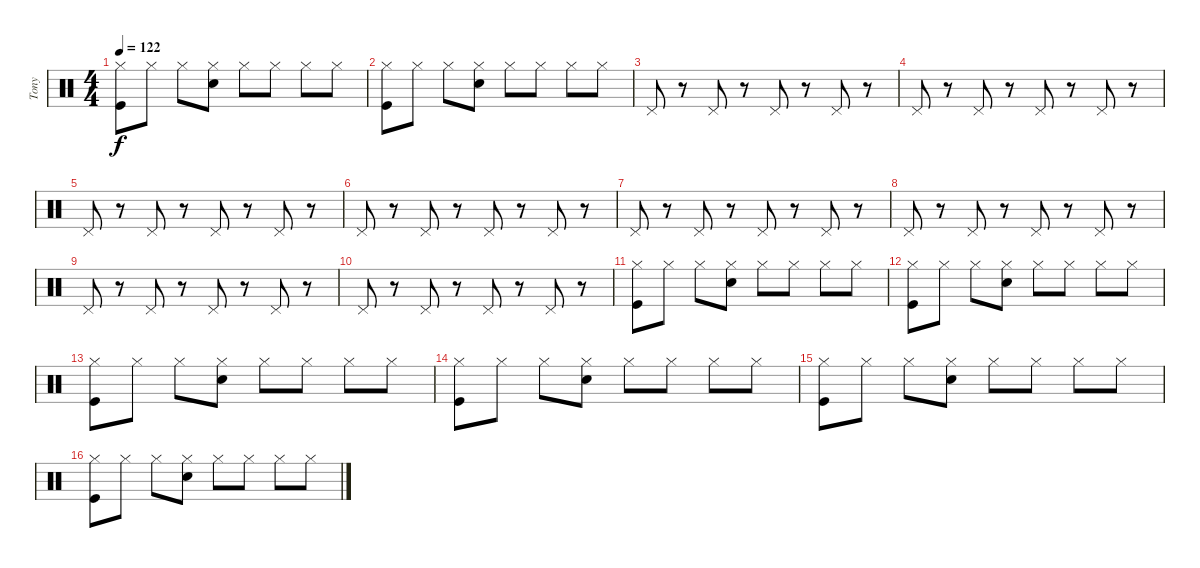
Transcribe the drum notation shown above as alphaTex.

\track ("Tony" "Tony") {instrument percussion}
\staff {score}
\articulation defaults
\ts (4 4)
\tempo 122
\clef neutral
\ks c
("Hi-Hat (closed)" "Kick (hit)").8{dy f} "Hi-Hat (closed)".8 "Hi-Hat (closed)".8 ("Hi-Hat (closed)" "Snare (hit) 2").8 "Hi-Hat (closed)".8 "Hi-Hat (closed)".8 "Hi-Hat (closed)".8 "Hi-Hat (closed)".8 |
("Hi-Hat (closed)" "Kick (hit)").8 "Hi-Hat (closed)".8 "Hi-Hat (closed)".8 ("Hi-Hat (closed)" "Snare (hit) 2").8 "Hi-Hat (closed)".8 "Hi-Hat (closed)".8 "Hi-Hat (closed)".8 "Hi-Hat (closed)".8 |
"Pedal Hi-Hat (hit)".8 r.8 "Pedal Hi-Hat (hit)".8 r.8 "Pedal Hi-Hat (hit)".8 r.8 "Pedal Hi-Hat (hit)".8 r.8 |
"Pedal Hi-Hat (hit)".8 r.8 "Pedal Hi-Hat (hit)".8 r.8 "Pedal Hi-Hat (hit)".8 r.8 "Pedal Hi-Hat (hit)".8 r.8 |
"Pedal Hi-Hat (hit)".8 r.8 "Pedal Hi-Hat (hit)".8 r.8 "Pedal Hi-Hat (hit)".8 r.8 "Pedal Hi-Hat (hit)".8 r.8 |
"Pedal Hi-Hat (hit)".8 r.8 "Pedal Hi-Hat (hit)".8 r.8 "Pedal Hi-Hat (hit)".8 r.8 "Pedal Hi-Hat (hit)".8 r.8 |
"Pedal Hi-Hat (hit)".8 r.8 "Pedal Hi-Hat (hit)".8 r.8 "Pedal Hi-Hat (hit)".8 r.8 "Pedal Hi-Hat (hit)".8 r.8 |
"Pedal Hi-Hat (hit)".8 r.8 "Pedal Hi-Hat (hit)".8 r.8 "Pedal Hi-Hat (hit)".8 r.8 "Pedal Hi-Hat (hit)".8 r.8 |
"Pedal Hi-Hat (hit)".8 r.8 "Pedal Hi-Hat (hit)".8 r.8 "Pedal Hi-Hat (hit)".8 r.8 "Pedal Hi-Hat (hit)".8 r.8 |
"Pedal Hi-Hat (hit)".8 r.8 "Pedal Hi-Hat (hit)".8 r.8 "Pedal Hi-Hat (hit)".8 r.8 "Pedal Hi-Hat (hit)".8 r.8 |
("Hi-Hat (closed)" "Kick (hit)").8 "Hi-Hat (closed)".8 "Hi-Hat (closed)".8 ("Hi-Hat (closed)" "Snare (hit) 2").8 "Hi-Hat (closed)".8 "Hi-Hat (closed)".8 "Hi-Hat (closed)".8 "Hi-Hat (closed)".8 |
("Hi-Hat (closed)" "Kick (hit)").8 "Hi-Hat (closed)".8 "Hi-Hat (closed)".8 ("Hi-Hat (closed)" "Snare (hit) 2").8 "Hi-Hat (closed)".8 "Hi-Hat (closed)".8 "Hi-Hat (closed)".8 "Hi-Hat (closed)".8 |
("Hi-Hat (closed)" "Kick (hit)").8 "Hi-Hat (closed)".8 "Hi-Hat (closed)".8 ("Hi-Hat (closed)" "Snare (hit) 2").8 "Hi-Hat (closed)".8 "Hi-Hat (closed)".8 "Hi-Hat (closed)".8 "Hi-Hat (closed)".8 |
("Hi-Hat (closed)" "Kick (hit)").8 "Hi-Hat (closed)".8 "Hi-Hat (closed)".8 ("Hi-Hat (closed)" "Snare (hit) 2").8 "Hi-Hat (closed)".8 "Hi-Hat (closed)".8 "Hi-Hat (closed)".8 "Hi-Hat (closed)".8 |
("Hi-Hat (closed)" "Kick (hit)").8 "Hi-Hat (closed)".8 "Hi-Hat (closed)".8 ("Hi-Hat (closed)" "Snare (hit) 2").8 "Hi-Hat (closed)".8 "Hi-Hat (closed)".8 "Hi-Hat (closed)".8 "Hi-Hat (closed)".8 |
("Hi-Hat (closed)" "Kick (hit)").8 "Hi-Hat (closed)".8 "Hi-Hat (closed)".8 ("Hi-Hat (closed)" "Snare (hit) 2").8 "Hi-Hat (closed)".8 "Hi-Hat (closed)".8 "Hi-Hat (closed)".8 "Hi-Hat (closed)".8
